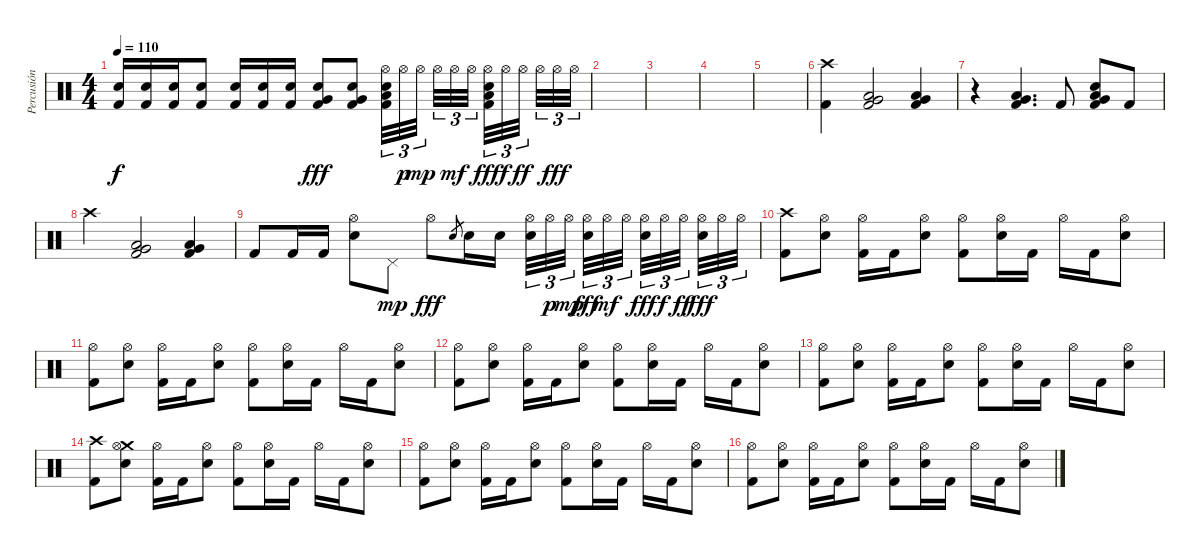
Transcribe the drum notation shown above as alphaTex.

\track ("Percusión" "Percusión") {instrument percussion}
\staff {score}
\articulation defaults
\ts (4 4)
\tempo 110
\clef neutral
\ks c
("Electric Snare (hit)" "Kick (hit) 2").16{dy f} ("Electric Snare (hit)" "Kick (hit) 2").16 ("Electric Snare (hit)" "Kick (hit) 2").16 ("Electric Snare (hit)" "Kick (hit) 2").8 ("Electric Snare (hit)" "Kick (hit) 2").16 ("Electric Snare (hit)" "Kick (hit) 2").16 ("Electric Snare (hit)" "Kick (hit) 2").16 ("Electric Snare (hit)" "Very Low Tom (hit)" "Kick (hit) 2").8{dy fff} ("Electric Snare (hit)" "Very Low Tom (hit)" "Kick (hit) 2").8 ("Hi-Hat (open)" "Electric Snare (hit)" "Low Floor Tom (hit)" "Kick (hit) 2").32{tu (3 2)} "Hi-Hat (open)".32{tu (3 2) dy p} "Hi-Hat (open)".32{tu (3 2) dy mp beam splitsecondary} "Hi-Hat (open)".32{tu (3 2)} "Hi-Hat (open)".32{tu (3 2) dy mf} "Hi-Hat (open)".32{tu (3 2) beam splitsecondary} ("Hi-Hat (open)" "Electric Snare (hit)" "Low Floor Tom (hit)" "Kick (hit) 2").32{tu (3 2) dy fff} "Hi-Hat (open)".32{tu (3 2) dy f} "Hi-Hat (open)".32{tu (3 2) dy ff beam splitsecondary} "Hi-Hat (open)".32{tu (3 2)} "Hi-Hat (open)".32{tu (3 2) dy fff} "Hi-Hat (open)".32{tu (3 2)} |
|
|
|
|
("Crash high (hit)" "Kick (hit) 2").4 ("Low Floor Tom (hit)" "Very Low Tom (hit)" "Kick (hit) 2").2 ("Low Floor Tom (hit)" "Very Low Tom (hit)" "Kick (hit) 2").4 |
r.4 ("Low Floor Tom (hit)" "Very Low Tom (hit)" "Kick (hit) 2").4{d} "Kick (hit) 2".8 ("Electric Snare (hit)" "Low Floor Tom (hit)" "Very Low Tom (hit)" "Kick (hit) 2").8 "Kick (hit) 2".8 |
"Crash high (hit)".4 ("Low Floor Tom (hit)" "Very Low Tom (hit)" "Kick (hit) 2").2 ("Low Floor Tom (hit)" "Very Low Tom (hit)" "Kick (hit) 2").4 |
"Kick (hit) 2".8 "Kick (hit) 2".16 "Kick (hit) 2".16 ("Hi-Hat (open)" "Electric Snare (hit)").8 "Pedal Hi-Hat (hit)".8{dy mp} "Hi-Hat (open)".8{dy fff} "Electric Snare (hit)".8{gr} "Electric Snare (hit)".16 "Electric Snare (hit)".16 ("Hi-Hat (open)" "Electric Snare (hit)").32{tu (3 2)} "Hi-Hat (open)".32{tu (3 2) dy p} "Hi-Hat (open)".32{tu (3 2) dy mp beam splitsecondary} ("Hi-Hat (open)" "Electric Snare (hit)").32{tu (3 2) dy fff} "Hi-Hat (open)".32{tu (3 2) dy mf} "Hi-Hat (open)".32{tu (3 2) beam splitsecondary} ("Hi-Hat (open)" "Electric Snare (hit)").32{tu (3 2) dy fff} "Hi-Hat (open)".32{tu (3 2) dy f} "Hi-Hat (open)".32{tu (3 2) dy ff beam splitsecondary} ("Hi-Hat (open)" "Electric Snare (hit)").32{tu (3 2) dy fff} "Hi-Hat (open)".32{tu (3 2)} "Hi-Hat (open)".32{tu (3 2)} |
("Crash high (hit)" "Kick (hit) 2").8 ("Hi-Hat (open)" "Electric Snare (hit)").8 ("Hi-Hat (open)" "Kick (hit) 2").16 "Kick (hit) 2".16 ("Hi-Hat (open)" "Electric Snare (hit)").8 ("Hi-Hat (open)" "Kick (hit) 2").8 ("Hi-Hat (open)" "Electric Snare (hit)").16 "Kick (hit) 2".16 "Hi-Hat (open)".16 "Kick (hit) 2".16 ("Hi-Hat (open)" "Electric Snare (hit)").8 |
("Hi-Hat (open)" "Kick (hit) 2").8 ("Hi-Hat (open)" "Electric Snare (hit)").8 ("Hi-Hat (open)" "Kick (hit) 2").16 "Kick (hit) 2".16 ("Hi-Hat (open)" "Electric Snare (hit)").8 ("Hi-Hat (open)" "Kick (hit) 2").8 ("Hi-Hat (open)" "Electric Snare (hit)").16 "Kick (hit) 2".16 "Hi-Hat (open)".16 "Kick (hit) 2".16 ("Hi-Hat (open)" "Electric Snare (hit)").8 |
("Hi-Hat (open)" "Kick (hit) 2").8 ("Hi-Hat (open)" "Electric Snare (hit)").8 ("Hi-Hat (open)" "Kick (hit) 2").16 "Kick (hit) 2".16 ("Hi-Hat (open)" "Electric Snare (hit)").8 ("Hi-Hat (open)" "Kick (hit) 2").8 ("Hi-Hat (open)" "Electric Snare (hit)").16 "Kick (hit) 2".16 "Hi-Hat (open)".16 "Kick (hit) 2".16 ("Hi-Hat (open)" "Electric Snare (hit)").8 |
("Hi-Hat (open)" "Kick (hit) 2").8 ("Hi-Hat (open)" "Electric Snare (hit)").8 ("Hi-Hat (open)" "Kick (hit) 2").16 "Kick (hit) 2".16 ("Hi-Hat (open)" "Electric Snare (hit)").8 ("Hi-Hat (open)" "Kick (hit) 2").8 ("Hi-Hat (open)" "Electric Snare (hit)").16 "Kick (hit) 2".16 "Hi-Hat (open)".16 "Kick (hit) 2".16 ("Hi-Hat (open)" "Electric Snare (hit)").8 |
("Crash high (hit)" "Kick (hit) 2").8 ("Crash medium (hit)" "Hi-Hat (open)" "Electric Snare (hit)").8 ("Hi-Hat (open)" "Kick (hit) 2").16 "Kick (hit) 2".16 ("Hi-Hat (open)" "Electric Snare (hit)").8 ("Hi-Hat (open)" "Kick (hit) 2").8 ("Hi-Hat (open)" "Electric Snare (hit)").16 "Kick (hit) 2".16 "Hi-Hat (open)".16 "Kick (hit) 2".16 ("Hi-Hat (open)" "Electric Snare (hit)").8 |
("Hi-Hat (open)" "Kick (hit) 2").8 ("Hi-Hat (open)" "Electric Snare (hit)").8 ("Hi-Hat (open)" "Kick (hit) 2").16 "Kick (hit) 2".16 ("Hi-Hat (open)" "Electric Snare (hit)").8 ("Hi-Hat (open)" "Kick (hit) 2").8 ("Hi-Hat (open)" "Electric Snare (hit)").16 "Kick (hit) 2".16 "Hi-Hat (open)".16 "Kick (hit) 2".16 ("Hi-Hat (open)" "Electric Snare (hit)").8 |
("Hi-Hat (open)" "Kick (hit) 2").8 ("Hi-Hat (open)" "Electric Snare (hit)").8 ("Hi-Hat (open)" "Kick (hit) 2").16 "Kick (hit) 2".16 ("Hi-Hat (open)" "Electric Snare (hit)").8 ("Hi-Hat (open)" "Kick (hit) 2").8 ("Hi-Hat (open)" "Electric Snare (hit)").16 "Kick (hit) 2".16 "Hi-Hat (open)".16 "Kick (hit) 2".16 ("Hi-Hat (open)" "Electric Snare (hit)").8
